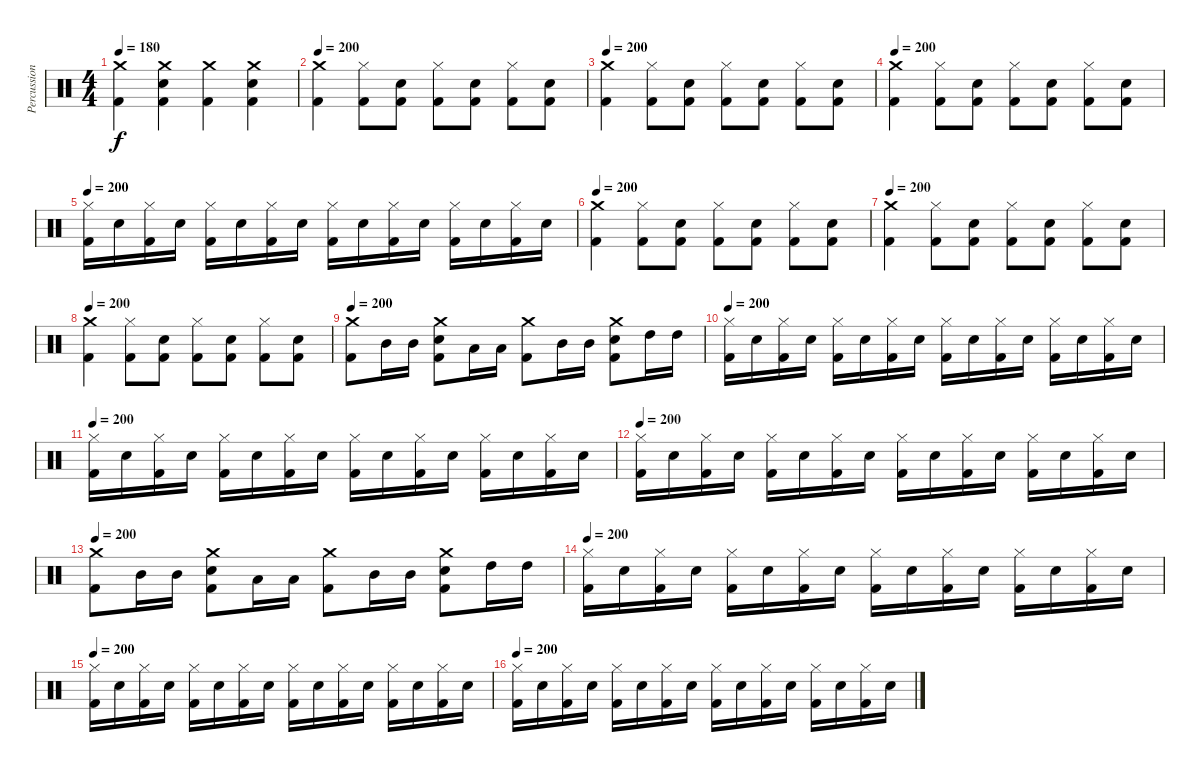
\track ("Percussion" "Percussion") {instrument percussion}
\staff {score}
\articulation defaults
\ts (4 4)
\tempo 180
\clef neutral
\ks c
("Crash medium (hit)" "Kick (hit) 2").4{dy f} ("Crash medium (hit)" "Electric Snare (hit)" "Kick (hit) 2").4 ("Crash medium (hit)" "Kick (hit) 2").4 ("Crash medium (hit)" "Electric Snare (hit)" "Kick (hit) 2").4 |
\tempo 200
("Crash medium (hit)" "Kick (hit) 2").4 ("Hi-Hat (closed)" "Kick (hit) 2").8 ("Electric Snare (hit)" "Kick (hit) 2").8 ("Hi-Hat (closed)" "Kick (hit) 2").8 ("Electric Snare (hit)" "Kick (hit) 2").8 ("Hi-Hat (closed)" "Kick (hit) 2").8 ("Electric Snare (hit)" "Kick (hit) 2").8 |
\tempo 200
("Crash medium (hit)" "Kick (hit) 2").4 ("Hi-Hat (closed)" "Kick (hit) 2").8 ("Electric Snare (hit)" "Kick (hit) 2").8 ("Hi-Hat (closed)" "Kick (hit) 2").8 ("Electric Snare (hit)" "Kick (hit) 2").8 ("Hi-Hat (closed)" "Kick (hit) 2").8 ("Electric Snare (hit)" "Kick (hit) 2").8 |
\tempo 200
("Crash medium (hit)" "Kick (hit) 2").4 ("Hi-Hat (closed)" "Kick (hit) 2").8 ("Electric Snare (hit)" "Kick (hit) 2").8 ("Hi-Hat (closed)" "Kick (hit) 2").8 ("Electric Snare (hit)" "Kick (hit) 2").8 ("Hi-Hat (closed)" "Kick (hit) 2").8 ("Electric Snare (hit)" "Kick (hit) 2").8 |
\tempo 200
("Hi-Hat (closed)" "Kick (hit) 2").16 "Electric Snare (hit)".16 ("Hi-Hat (closed)" "Kick (hit) 2").16 "Electric Snare (hit)".16 ("Hi-Hat (closed)" "Kick (hit) 2").16 "Electric Snare (hit)".16 ("Hi-Hat (closed)" "Kick (hit) 2").16 "Electric Snare (hit)".16 ("Hi-Hat (closed)" "Kick (hit) 2").16 "Electric Snare (hit)".16 ("Hi-Hat (closed)" "Kick (hit) 2").16 "Electric Snare (hit)".16 ("Hi-Hat (closed)" "Kick (hit) 2").16 "Electric Snare (hit)".16 ("Hi-Hat (closed)" "Kick (hit) 2").16 "Electric Snare (hit)".16 |
\tempo 200
("Crash medium (hit)" "Kick (hit) 2").4 ("Hi-Hat (closed)" "Kick (hit) 2").8 ("Electric Snare (hit)" "Kick (hit) 2").8 ("Hi-Hat (closed)" "Kick (hit) 2").8 ("Electric Snare (hit)" "Kick (hit) 2").8 ("Hi-Hat (closed)" "Kick (hit) 2").8 ("Electric Snare (hit)" "Kick (hit) 2").8 |
\tempo 200
("Crash medium (hit)" "Kick (hit) 2").4 ("Hi-Hat (closed)" "Kick (hit) 2").8 ("Electric Snare (hit)" "Kick (hit) 2").8 ("Hi-Hat (closed)" "Kick (hit) 2").8 ("Electric Snare (hit)" "Kick (hit) 2").8 ("Hi-Hat (closed)" "Kick (hit) 2").8 ("Electric Snare (hit)" "Kick (hit) 2").8 |
\tempo 200
("Crash medium (hit)" "Kick (hit) 2").4 ("Hi-Hat (closed)" "Kick (hit) 2").8 ("Electric Snare (hit)" "Kick (hit) 2").8 ("Hi-Hat (closed)" "Kick (hit) 2").8 ("Electric Snare (hit)" "Kick (hit) 2").8 ("Hi-Hat (closed)" "Kick (hit) 2").8 ("Electric Snare (hit)" "Kick (hit) 2").8 |
\tempo 200
("Crash medium (hit)" "Kick (hit) 2").8 "Mid Tom (hit)".16 "Mid Tom (hit)".16 ("Crash medium (hit)" "Electric Snare (hit)" "Kick (hit) 2").8 "Low Tom (hit)".16 "Low Tom (hit)".16 ("Crash medium (hit)" "Kick (hit) 2").8 "Mid Tom (hit)".16 "Mid Tom (hit)".16 ("Crash medium (hit)" "Electric Snare (hit)" "Kick (hit) 2").8 "High Tom (hit)".16 "High Tom (hit)".16 |
\tempo 200
("Hi-Hat (closed)" "Kick (hit) 2").16 "Electric Snare (hit)".16 ("Hi-Hat (closed)" "Kick (hit) 2").16 "Electric Snare (hit)".16 ("Hi-Hat (closed)" "Kick (hit) 2").16 "Electric Snare (hit)".16 ("Hi-Hat (closed)" "Kick (hit) 2").16 "Electric Snare (hit)".16 ("Hi-Hat (closed)" "Kick (hit) 2").16 "Electric Snare (hit)".16 ("Hi-Hat (closed)" "Kick (hit) 2").16 "Electric Snare (hit)".16 ("Hi-Hat (closed)" "Kick (hit) 2").16 "Electric Snare (hit)".16 ("Hi-Hat (closed)" "Kick (hit) 2").16 "Electric Snare (hit)".16 |
\tempo 200
("Hi-Hat (closed)" "Kick (hit) 2").16 "Electric Snare (hit)".16 ("Hi-Hat (closed)" "Kick (hit) 2").16 "Electric Snare (hit)".16 ("Hi-Hat (closed)" "Kick (hit) 2").16 "Electric Snare (hit)".16 ("Hi-Hat (closed)" "Kick (hit) 2").16 "Electric Snare (hit)".16 ("Hi-Hat (closed)" "Kick (hit) 2").16 "Electric Snare (hit)".16 ("Hi-Hat (closed)" "Kick (hit) 2").16 "Electric Snare (hit)".16 ("Hi-Hat (closed)" "Kick (hit) 2").16 "Electric Snare (hit)".16 ("Hi-Hat (closed)" "Kick (hit) 2").16 "Electric Snare (hit)".16 |
\tempo 200
("Hi-Hat (closed)" "Kick (hit) 2").16 "Electric Snare (hit)".16 ("Hi-Hat (closed)" "Kick (hit) 2").16 "Electric Snare (hit)".16 ("Hi-Hat (closed)" "Kick (hit) 2").16 "Electric Snare (hit)".16 ("Hi-Hat (closed)" "Kick (hit) 2").16 "Electric Snare (hit)".16 ("Hi-Hat (closed)" "Kick (hit) 2").16 "Electric Snare (hit)".16 ("Hi-Hat (closed)" "Kick (hit) 2").16 "Electric Snare (hit)".16 ("Hi-Hat (closed)" "Kick (hit) 2").16 "Electric Snare (hit)".16 ("Hi-Hat (closed)" "Kick (hit) 2").16 "Electric Snare (hit)".16 |
\tempo 200
("Crash medium (hit)" "Kick (hit) 2").8 "Mid Tom (hit)".16 "Mid Tom (hit)".16 ("Crash medium (hit)" "Electric Snare (hit)" "Kick (hit) 2").8 "Low Tom (hit)".16 "Low Tom (hit)".16 ("Crash medium (hit)" "Kick (hit) 2").8 "Mid Tom (hit)".16 "Mid Tom (hit)".16 ("Crash medium (hit)" "Electric Snare (hit)" "Kick (hit) 2").8 "High Tom (hit)".16 "High Tom (hit)".16 |
\tempo 200
("Hi-Hat (closed)" "Kick (hit) 2").16 "Electric Snare (hit)".16 ("Hi-Hat (closed)" "Kick (hit) 2").16 "Electric Snare (hit)".16 ("Hi-Hat (closed)" "Kick (hit) 2").16 "Electric Snare (hit)".16 ("Hi-Hat (closed)" "Kick (hit) 2").16 "Electric Snare (hit)".16 ("Hi-Hat (closed)" "Kick (hit) 2").16 "Electric Snare (hit)".16 ("Hi-Hat (closed)" "Kick (hit) 2").16 "Electric Snare (hit)".16 ("Hi-Hat (closed)" "Kick (hit) 2").16 "Electric Snare (hit)".16 ("Hi-Hat (closed)" "Kick (hit) 2").16 "Electric Snare (hit)".16 |
\tempo 200
("Hi-Hat (closed)" "Kick (hit) 2").16 "Electric Snare (hit)".16 ("Hi-Hat (closed)" "Kick (hit) 2").16 "Electric Snare (hit)".16 ("Hi-Hat (closed)" "Kick (hit) 2").16 "Electric Snare (hit)".16 ("Hi-Hat (closed)" "Kick (hit) 2").16 "Electric Snare (hit)".16 ("Hi-Hat (closed)" "Kick (hit) 2").16 "Electric Snare (hit)".16 ("Hi-Hat (closed)" "Kick (hit) 2").16 "Electric Snare (hit)".16 ("Hi-Hat (closed)" "Kick (hit) 2").16 "Electric Snare (hit)".16 ("Hi-Hat (closed)" "Kick (hit) 2").16 "Electric Snare (hit)".16 |
\tempo 200
("Hi-Hat (closed)" "Kick (hit) 2").16 "Electric Snare (hit)".16 ("Hi-Hat (closed)" "Kick (hit) 2").16 "Electric Snare (hit)".16 ("Hi-Hat (closed)" "Kick (hit) 2").16 "Electric Snare (hit)".16 ("Hi-Hat (closed)" "Kick (hit) 2").16 "Electric Snare (hit)".16 ("Hi-Hat (closed)" "Kick (hit) 2").16 "Electric Snare (hit)".16 ("Hi-Hat (closed)" "Kick (hit) 2").16 "Electric Snare (hit)".16 ("Hi-Hat (closed)" "Kick (hit) 2").16 "Electric Snare (hit)".16 ("Hi-Hat (closed)" "Kick (hit) 2").16 "Electric Snare (hit)".16
